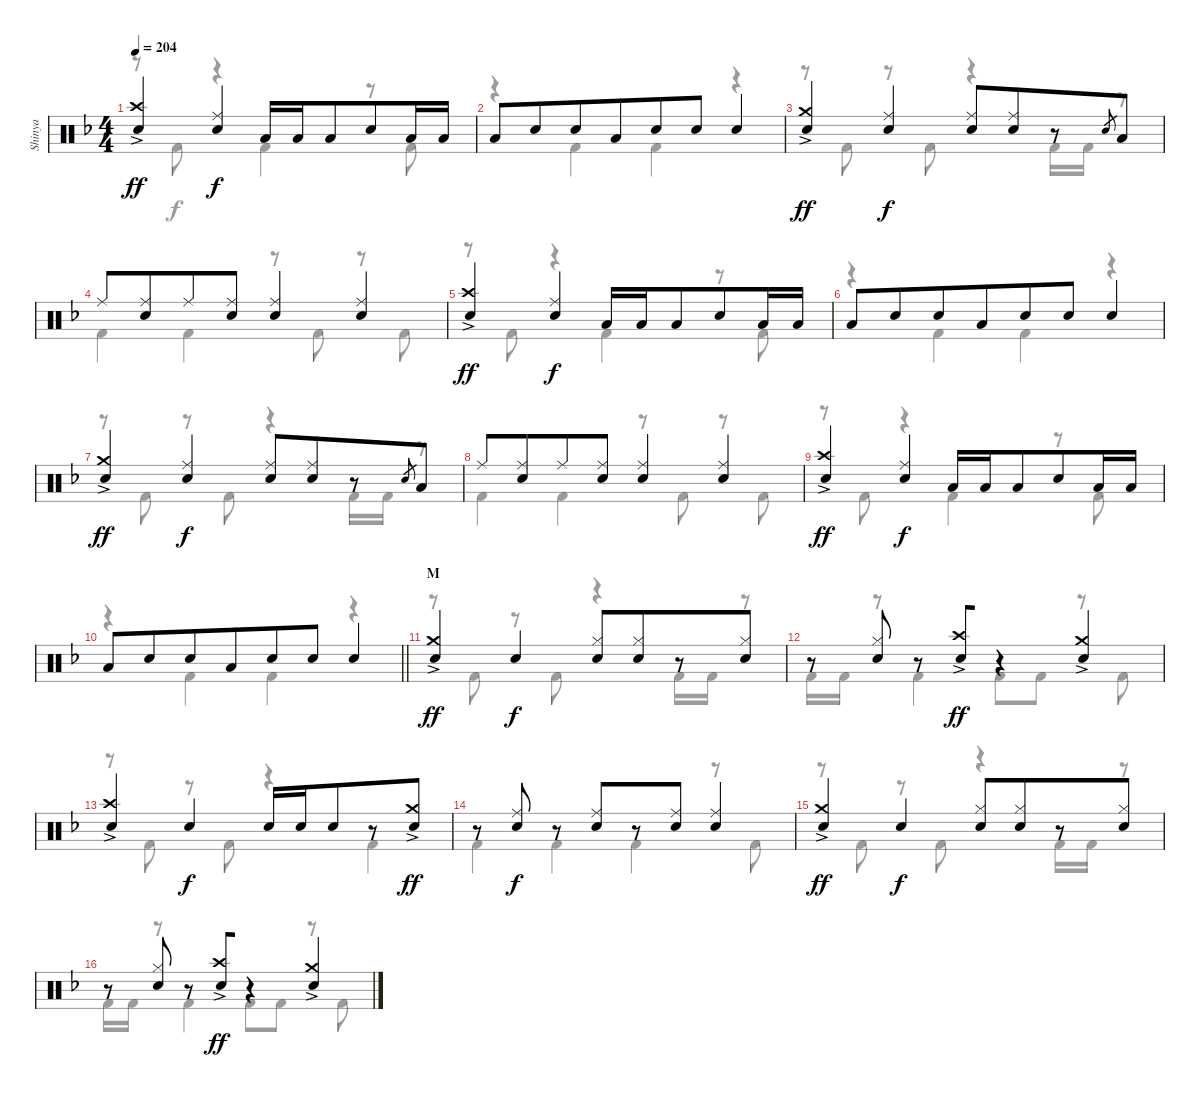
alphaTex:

\track ("Shinya" "Shinya") {mute instrument percussion}
\staff {score}
\articulation defaults
\voice
\ts (4 4)
\tempo 204
\clef neutral
\ks f
("Crash high (hit)"{ac} "Snare (hit) 2").4{dy ff} ("Ride (middle)" "Snare (hit) 2").4{dy f} "Low Tom (hit)".16 "Low Tom (hit)".16{beam merge} "Low Tom (hit)".8{beam merge} "Snare (hit) 2".8{beam merge} "Low Tom (hit)".16 "Low Tom (hit)".16 |
"Low Tom (hit)".8 "Snare (hit) 2".8{beam merge} "Snare (hit) 2".8{beam merge} "Low Tom (hit)".8{beam merge} "Snare (hit) 2".8 "Snare (hit) 2".8{beam merge} "Snare (hit) 2".4 |
("Crash medium (hit)"{ac} "Snare (hit) 2").4{dy ff} ("Ride (middle)" "Snare (hit) 2").4{dy f} ("Ride (middle)" "Snare (hit) 2").8{beam merge} ("Ride (middle)" "Snare (hit) 2").8{beam merge} r.8 "Snare (hit)"{h}.8{gr} "Low Tom (hit)".8 |
"Ride (middle)".8 ("Ride (middle)" "Snare (hit) 2").8{beam merge} "Ride (middle)".8{beam merge} ("Ride (middle)" "Snare (hit) 2").8{beam merge} ("Ride (middle)" "Snare (hit) 2").4 ("Ride (middle)" "Snare (hit) 2").4 |
("Crash high (hit)"{ac} "Snare (hit) 2").4{dy ff} ("Ride (middle)" "Snare (hit) 2").4{dy f} "Low Tom (hit)".16 "Low Tom (hit)".16{beam merge} "Low Tom (hit)".8{beam merge} "Snare (hit) 2".8{beam merge} "Low Tom (hit)".16 "Low Tom (hit)".16 |
"Low Tom (hit)".8 "Snare (hit) 2".8{beam merge} "Snare (hit) 2".8{beam merge} "Low Tom (hit)".8{beam merge} "Snare (hit) 2".8 "Snare (hit) 2".8{beam merge} "Snare (hit) 2".4 |
("Crash medium (hit)"{ac} "Snare (hit) 2").4{dy ff} ("Ride (middle)" "Snare (hit) 2").4{dy f} ("Ride (middle)" "Snare (hit) 2").8{beam merge} ("Ride (middle)" "Snare (hit) 2").8{beam merge} r.8 "Snare (hit)"{h}.8{gr} "Low Tom (hit)".8 |
"Ride (middle)".8 ("Ride (middle)" "Snare (hit) 2").8{beam merge} "Ride (middle)".8{beam merge} ("Ride (middle)" "Snare (hit) 2").8{beam merge} ("Ride (middle)" "Snare (hit) 2").4 ("Ride (middle)" "Snare (hit) 2").4 |
("Crash high (hit)"{ac} "Snare (hit) 2").4{dy ff} ("Ride (middle)" "Snare (hit) 2").4{dy f} "Low Tom (hit)".16 "Low Tom (hit)".16{beam merge} "Low Tom (hit)".8{beam merge} "Snare (hit) 2".8{beam merge} "Low Tom (hit)".16 "Low Tom (hit)".16 |
\barLineRight lightlight "Low Tom (hit)".8 "Snare (hit) 2".8{beam merge} "Snare (hit) 2".8{beam merge} "Low Tom (hit)".8{beam merge} "Snare (hit) 2".8 "Snare (hit) 2".8{beam merge} "Snare (hit) 2".4
|
\section ("" "M")
("Crash medium (hit)"{ac} "Snare (hit) 2").4{dy ff} "Snare (hit) 2".4{dy f} ("Hi-Hat (closed)" "Snare (hit) 2").8 ("Hi-Hat (closed)" "Snare (hit) 2").8{beam merge} r.8 ("Hi-Hat (closed)" "Snare (hit) 2").8 |
r.8 ("Hi-Hat (closed)" "Snare (hit) 2").8 r.8{beam merge} ("Crash high (hit)"{ac} "Snare (hit) 2").8{dy ff beam merge} r.4 ("Crash medium (hit)"{ac} "Snare (hit) 2").4 |
("Crash high (hit)"{ac} "Snare (hit) 2").4 "Snare (hit) 2".4{dy f} "Snare (hit) 2".16{beam merge} "Snare (hit) 2".16 "Snare (hit) 2".8{beam merge} r.8 ("Crash medium (hit)"{ac} "Snare (hit) 2").8{dy ff} |
r.8 ("Ride (middle)" "Snare (hit) 2").8{dy f} r.8{beam merge} ("Ride (middle)" "Snare (hit) 2").8{beam merge} r.8 ("Ride (middle)" "Snare (hit) 2").8{beam merge} ("Ride (middle)" "Snare (hit) 2").4 |
("Crash medium (hit)"{ac} "Snare (hit) 2").4{dy ff} "Snare (hit) 2".4{dy f} ("Hi-Hat (closed)" "Snare (hit) 2").8 ("Hi-Hat (closed)" "Snare (hit) 2").8{beam merge} r.8 ("Hi-Hat (closed)" "Snare (hit) 2").8 |
r.8 ("Hi-Hat (closed)" "Snare (hit) 2").8 r.8{beam merge} ("Crash high (hit)"{ac} "Snare (hit) 2").8{dy ff beam merge} r.4 ("Crash medium (hit)"{ac} "Snare (hit) 2").4
\voice
\clef neutral
\ottava regular
\simile none
\ks f
r.8{dy f} "Kick (hit) 2".8 r.4 "Kick (hit) 2".4 r.8 "Kick (hit) 2".8 |
r.4 "Kick (hit) 2".4 "Kick (hit) 2".4 r.4 |
r.8 "Kick (hit) 2".8 r.8 "Kick (hit) 2".8 r.4 "Kick (hit) 2".16 "Kick (hit) 2".16 r.8 |
"Kick (hit) 2".4 "Kick (hit) 2".4 r.8 "Kick (hit) 2".8 r.8 "Kick (hit) 2".8 |
r.8 "Kick (hit) 2".8 r.4 "Kick (hit) 2".4 r.8 "Kick (hit) 2".8 |
r.4 "Kick (hit) 2".4 "Kick (hit) 2".4 r.4 |
r.8 "Kick (hit) 2".8 r.8 "Kick (hit) 2".8 r.4 "Kick (hit) 2".16 "Kick (hit) 2".16 r.8 |
"Kick (hit) 2".4 "Kick (hit) 2".4 r.8 "Kick (hit) 2".8 r.8 "Kick (hit) 2".8 |
r.8 "Kick (hit) 2".8 r.4 "Kick (hit) 2".4 r.8 "Kick (hit) 2".8 |
\barLineRight lightlight
r.4 "Kick (hit) 2".4 "Kick (hit) 2".4 r.4 |
r.8 "Kick (hit) 2".8 r.8 "Kick (hit) 2".8 r.4 "Kick (hit) 2".16 "Kick (hit) 2".16 r.8 |
"Kick (hit) 2".16 "Kick (hit) 2".16 r.8 "Kick (hit) 2".4 "Kick (hit) 2".8 "Kick (hit) 2".8 r.8 "Kick (hit) 2".8 |
r.8 "Kick (hit) 2".8 r.8 "Kick (hit) 2".8 r.4 "Kick (hit) 2".4 |
"Kick (hit) 2".4 "Kick (hit) 2".4 "Kick (hit) 2".4 r.8 "Kick (hit) 2".8 |
r.8 "Kick (hit) 2".8 r.8 "Kick (hit) 2".8 r.4 "Kick (hit) 2".16 "Kick (hit) 2".16 r.8 |
"Kick (hit) 2".16 "Kick (hit) 2".16 r.8 "Kick (hit) 2".4 "Kick (hit) 2".8 "Kick (hit) 2".8 r.8 "Kick (hit) 2".8
